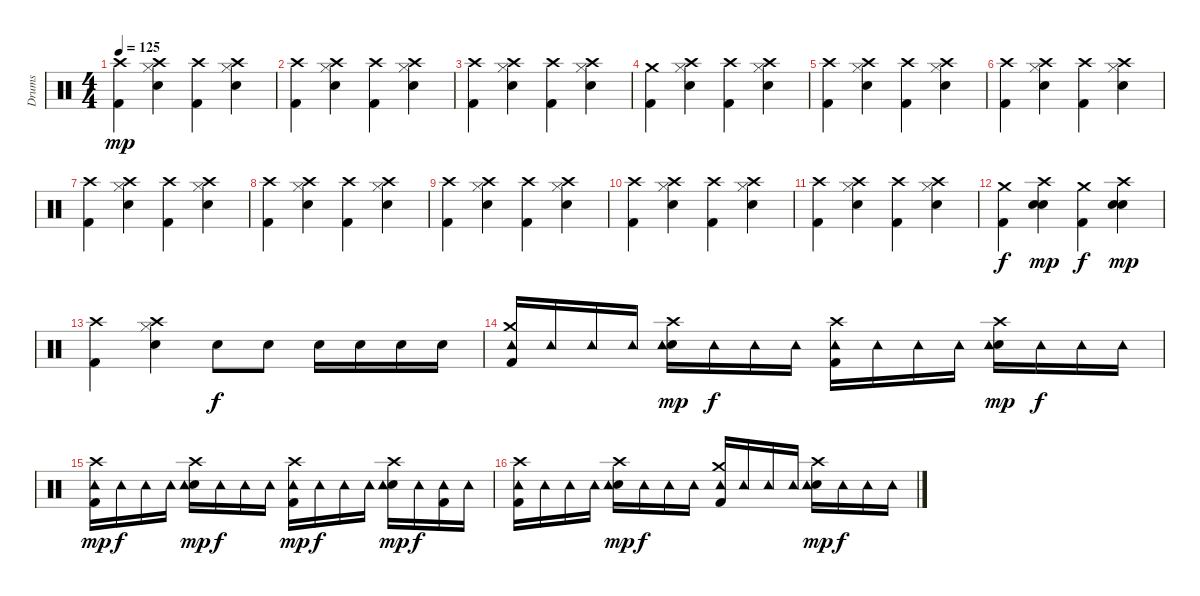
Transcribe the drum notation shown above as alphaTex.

\track ("Drums" "Drums") {instrument percussion}
\staff {score}
\articulation defaults
\ts (4 4)
\tempo 125
\clef neutral
\ks c
("Crash high (hit)" "Kick (hit) 2").4{dy mp} ("Crash high (hit)" "Snare (hit) 2" "Hi-Hat (closed)").4 ("Crash high (hit)" "Kick (hit) 2").4 ("Crash high (hit)" "Snare (hit) 2" "Hi-Hat (closed)").4 |
("Crash high (hit)" "Kick (hit) 2").4 ("Crash high (hit)" "Snare (hit) 2" "Hi-Hat (closed)").4 ("Crash high (hit)" "Kick (hit) 2").4 ("Crash high (hit)" "Snare (hit) 2" "Hi-Hat (closed)").4 |
("Crash high (hit)" "Kick (hit) 2").4 ("Crash high (hit)" "Snare (hit) 2" "Hi-Hat (closed)").4 ("Crash high (hit)" "Kick (hit) 2").4 ("Crash high (hit)" "Snare (hit) 2" "Hi-Hat (closed)").4 |
("Kick (hit) 2" "Crash medium (hit)").4 ("Crash high (hit)" "Snare (hit) 2" "Hi-Hat (closed)").4 ("Crash high (hit)" "Kick (hit) 2").4 ("Crash high (hit)" "Snare (hit) 2" "Hi-Hat (closed)").4 |
("Crash high (hit)" "Kick (hit) 2").4 ("Crash high (hit)" "Snare (hit) 2" "Hi-Hat (closed)").4 ("Crash high (hit)" "Kick (hit) 2").4 ("Crash high (hit)" "Snare (hit) 2" "Hi-Hat (closed)").4 |
("Crash high (hit)" "Kick (hit) 2").4 ("Crash high (hit)" "Snare (hit) 2" "Hi-Hat (closed)").4 ("Crash high (hit)" "Kick (hit) 2").4 ("Crash high (hit)" "Snare (hit) 2" "Hi-Hat (closed)").4 |
("Crash high (hit)" "Kick (hit) 2").4 ("Crash high (hit)" "Snare (hit) 2" "Hi-Hat (closed)").4 ("Crash high (hit)" "Kick (hit) 2").4 ("Crash high (hit)" "Snare (hit) 2" "Hi-Hat (closed)").4 |
("Crash high (hit)" "Kick (hit) 2").4 ("Crash high (hit)" "Snare (hit) 2" "Hi-Hat (closed)").4 ("Crash high (hit)" "Kick (hit) 2").4 ("Crash high (hit)" "Snare (hit) 2" "Hi-Hat (closed)").4 |
("Crash high (hit)" "Kick (hit) 2").4 ("Crash high (hit)" "Snare (hit) 2" "Hi-Hat (closed)").4 ("Crash high (hit)" "Kick (hit) 2").4 ("Crash high (hit)" "Snare (hit) 2" "Hi-Hat (closed)").4 |
("Crash high (hit)" "Kick (hit) 2").4 ("Crash high (hit)" "Snare (hit) 2" "Hi-Hat (closed)").4 ("Crash high (hit)" "Kick (hit) 2").4 ("Crash high (hit)" "Snare (hit) 2" "Hi-Hat (closed)").4 |
("Crash high (hit)" "Kick (hit) 2").4 ("Crash high (hit)" "Snare (hit) 2" "Hi-Hat (closed)").4 ("Crash high (hit)" "Kick (hit) 2").4 ("Crash high (hit)" "Snare (hit) 2" "Hi-Hat (closed)").4 |
("Crash medium (hit)" "Kick (hit) 2").4{dy f} ("Crash high (hit)" "Snare (hit) 2" "Electric Snare (hit)").4{dy mp} ("Crash medium (hit)" "Kick (hit) 2").4{dy f} ("Crash high (hit)" "Snare (hit) 2" "Electric Snare (hit)").4{dy mp} |
("Crash high (hit)" "Kick (hit) 2").4 ("Crash high (hit)" "Snare (hit) 2" "Hi-Hat (closed)").4 "Snare (hit) 2".8{dy f} "Snare (hit) 2".8 "Snare (hit) 2".16 "Snare (hit) 2".16 "Snare (hit) 2".16 "Snare (hit) 2".16 |
("Crash medium (hit)" "Kick (hit) 2" "Tambourine (hit)").16 "Tambourine (hit)".16 "Tambourine (hit)".16 "Tambourine (hit)".16 ("Crash high (hit)" "Snare (hit) 2" "Tambourine (hit)").16{dy mp} "Tambourine (hit)".16{dy f} "Tambourine (hit)".16 "Tambourine (hit)".16 ("Crash high (hit)" "Kick (hit) 2" "Tambourine (hit)").16 "Tambourine (hit)".16 "Tambourine (hit)".16 "Tambourine (hit)".16 ("Crash high (hit)" "Snare (hit) 2" "Tambourine (hit)").16{dy mp} "Tambourine (hit)".16{dy f} "Tambourine (hit)".16 "Tambourine (hit)".16 |
("Crash high (hit)" "Kick (hit) 2" "Tambourine (hit)").16{dy mp} "Tambourine (hit)".16{dy f} "Tambourine (hit)".16 "Tambourine (hit)".16 ("Crash high (hit)" "Snare (hit) 2" "Tambourine (hit)").16{dy mp} "Tambourine (hit)".16{dy f} "Tambourine (hit)".16 "Tambourine (hit)".16 ("Crash high (hit)" "Kick (hit) 2" "Tambourine (hit)").16{dy mp} "Tambourine (hit)".16{dy f} "Tambourine (hit)".16 "Tambourine (hit)".16 ("Crash high (hit)" "Snare (hit) 2" "Tambourine (hit)").16{dy mp} "Tambourine (hit)".16{dy f} ("Kick (hit) 2" "Tambourine (hit)").16 "Tambourine (hit)".16 |
("Crash high (hit)" "Kick (hit) 2" "Tambourine (hit)").16 "Tambourine (hit)".16 "Tambourine (hit)".16 "Tambourine (hit)".16 ("Crash high (hit)" "Snare (hit) 2" "Tambourine (hit)").16{dy mp} "Tambourine (hit)".16{dy f} "Tambourine (hit)".16 "Tambourine (hit)".16 ("Crash medium (hit)" "Kick (hit) 2" "Tambourine (hit)").16 "Tambourine (hit)".16 "Tambourine (hit)".16 "Tambourine (hit)".16 ("Crash high (hit)" "Snare (hit) 2" "Tambourine (hit)").16{dy mp} "Tambourine (hit)".16{dy f} "Tambourine (hit)".16 "Tambourine (hit)".16
